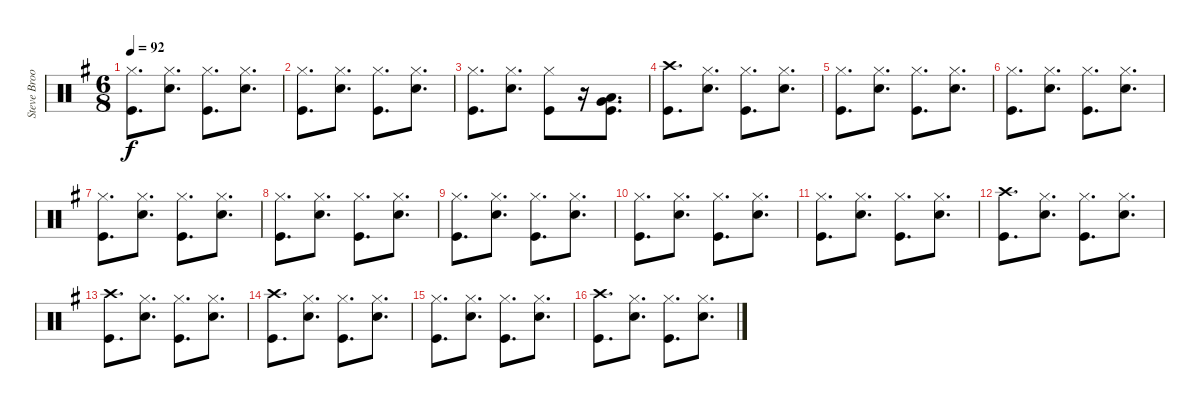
\track ("Steve Brookins Drums" "Steve Broo") {instrument percussion}
\staff {score}
\articulation defaults
\ts (6 8)
\tempo 92
\clef neutral
\ks g
("Hi-Hat (closed)" "Kick (hit)").8{d dy f} ("Hi-Hat (closed)" "Snare (hit) 2").8{d} ("Hi-Hat (closed)" "Kick (hit)").8{d} ("Hi-Hat (closed)" "Snare (hit) 2").8{d} |
("Hi-Hat (closed)" "Kick (hit)").8{d} ("Hi-Hat (closed)" "Snare (hit) 2").8{d} ("Hi-Hat (closed)" "Kick (hit)").8{d} ("Hi-Hat (closed)" "Snare (hit) 2").8{d} |
("Hi-Hat (closed)" "Kick (hit)").8{d} ("Hi-Hat (closed)" "Snare (hit) 2").8{d} ("Hi-Hat (closed)" "Kick (hit)").8 r.16 ("Very Low Tom (hit)" "Low Floor Tom (hit)" "Kick (hit)").8{d} |
("Crash high (hit)" "Kick (hit)").8{d} ("Hi-Hat (closed)" "Snare (hit) 2").8{d} ("Hi-Hat (closed)" "Kick (hit)").8{d} ("Hi-Hat (closed)" "Snare (hit) 2").8{d} |
("Hi-Hat (closed)" "Kick (hit)").8{d} ("Hi-Hat (closed)" "Snare (hit) 2").8{d} ("Hi-Hat (closed)" "Kick (hit)").8{d} ("Hi-Hat (closed)" "Snare (hit) 2").8{d} |
("Hi-Hat (closed)" "Kick (hit)").8{d} ("Hi-Hat (closed)" "Snare (hit) 2").8{d} ("Hi-Hat (closed)" "Kick (hit)").8{d} ("Hi-Hat (closed)" "Snare (hit) 2").8{d} |
("Hi-Hat (closed)" "Kick (hit)").8{d} ("Hi-Hat (closed)" "Snare (hit) 2").8{d} ("Hi-Hat (closed)" "Kick (hit)").8{d} ("Hi-Hat (closed)" "Snare (hit) 2").8{d} |
("Hi-Hat (closed)" "Kick (hit)").8{d} ("Hi-Hat (closed)" "Snare (hit) 2").8{d} ("Hi-Hat (closed)" "Kick (hit)").8{d} ("Hi-Hat (closed)" "Snare (hit) 2").8{d} |
("Hi-Hat (closed)" "Kick (hit)").8{d} ("Hi-Hat (closed)" "Snare (hit) 2").8{d} ("Hi-Hat (closed)" "Kick (hit)").8{d} ("Hi-Hat (closed)" "Snare (hit) 2").8{d} |
("Hi-Hat (closed)" "Kick (hit)").8{d} ("Hi-Hat (closed)" "Snare (hit) 2").8{d} ("Hi-Hat (closed)" "Kick (hit)").8{d} ("Hi-Hat (closed)" "Snare (hit) 2").8{d} |
("Hi-Hat (closed)" "Kick (hit)").8{d} ("Hi-Hat (closed)" "Snare (hit) 2").8{d} ("Hi-Hat (closed)" "Kick (hit)").8{d} ("Hi-Hat (closed)" "Snare (hit) 2").8{d} |
("Crash high (hit)" "Kick (hit)").8{d} ("Hi-Hat (closed)" "Snare (hit) 2").8{d} ("Hi-Hat (closed)" "Kick (hit)").8{d} ("Hi-Hat (closed)" "Snare (hit) 2").8{d} |
("Crash high (hit)" "Kick (hit)").8{d} ("Hi-Hat (closed)" "Snare (hit) 2").8{d} ("Hi-Hat (closed)" "Kick (hit)").8{d} ("Hi-Hat (closed)" "Snare (hit) 2").8{d} |
("Crash high (hit)" "Kick (hit)").8{d} ("Hi-Hat (closed)" "Snare (hit) 2").8{d} ("Hi-Hat (closed)" "Kick (hit)").8{d} ("Hi-Hat (closed)" "Snare (hit) 2").8{d} |
("Hi-Hat (closed)" "Kick (hit)").8{d} ("Hi-Hat (closed)" "Snare (hit) 2").8{d} ("Hi-Hat (closed)" "Kick (hit)").8{d} ("Hi-Hat (closed)" "Snare (hit) 2").8{d} |
("Crash high (hit)" "Kick (hit)").8{d} ("Hi-Hat (closed)" "Snare (hit) 2").8{d} ("Hi-Hat (closed)" "Kick (hit)").8{d} ("Hi-Hat (closed)" "Snare (hit) 2").8{d}
